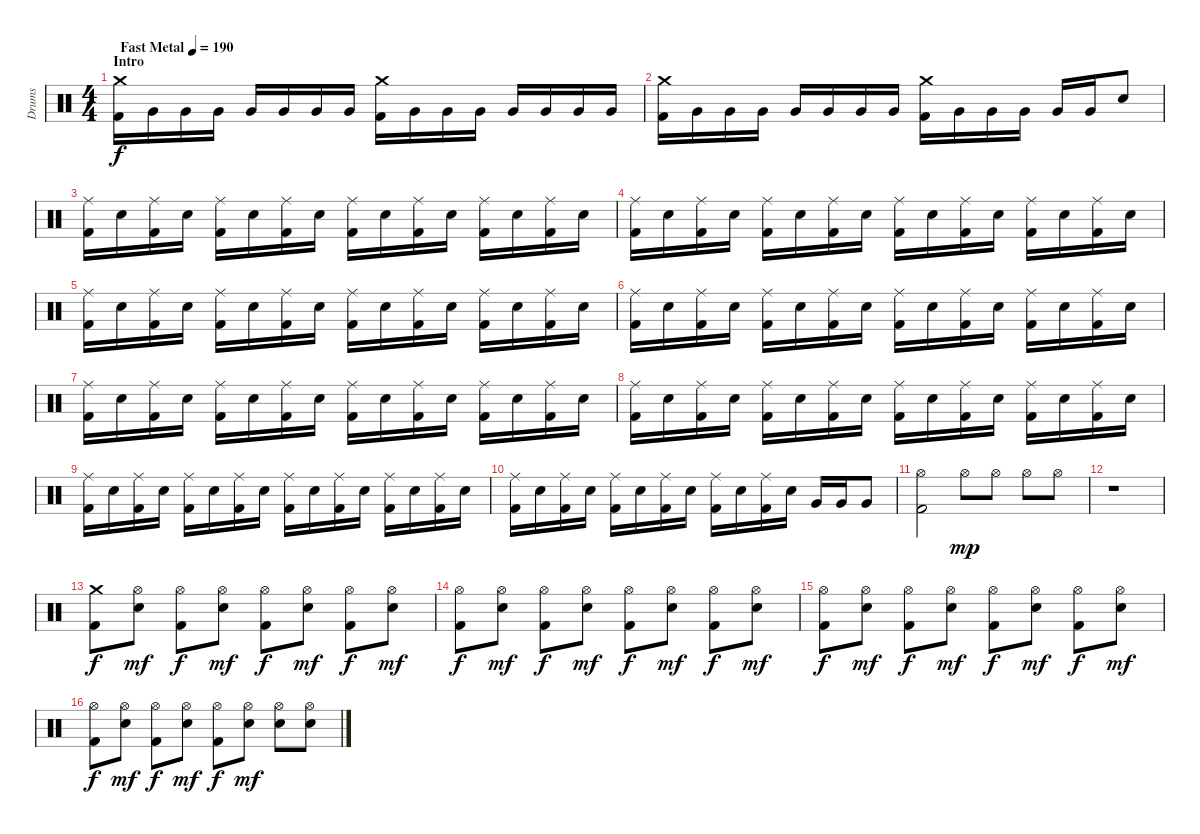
\track ("Drums" "Drums") {instrument percussion}
\staff {score}
\articulation defaults
\ts (4 4)
\section ("" "Intro")
\tempo (190 "Fast Metal")
\clef neutral
\ks c
("Crash medium (hit)" "Kick (hit) 2").16{dy f} "Very Low Tom (hit)".16 "Very Low Tom (hit)".16 "Very Low Tom (hit)".16 "Very Low Tom (hit)".16 "Very Low Tom (hit)".16 "Very Low Tom (hit)".16 "Very Low Tom (hit)".16 ("Crash medium (hit)" "Kick (hit) 2").16 "Very Low Tom (hit)".16 "Very Low Tom (hit)".16 "Very Low Tom (hit)".16 "Very Low Tom (hit)".16 "Very Low Tom (hit)".16 "Very Low Tom (hit)".16 "Very Low Tom (hit)".16 |
("Crash medium (hit)" "Kick (hit) 2").16 "Very Low Tom (hit)".16 "Very Low Tom (hit)".16 "Very Low Tom (hit)".16 "Very Low Tom (hit)".16 "Very Low Tom (hit)".16 "Very Low Tom (hit)".16 "Very Low Tom (hit)".16 ("Crash medium (hit)" "Kick (hit) 2").16 "Very Low Tom (hit)".16 "Very Low Tom (hit)".16 "Very Low Tom (hit)".16 "Very Low Tom (hit)".16 "Very Low Tom (hit)".16 "Snare (hit) 2".8 |
("Ride (middle)" "Kick (hit) 2").16 "Snare (hit) 2".16 ("Ride (middle)" "Kick (hit) 2").16 "Snare (hit) 2".16 ("Ride (middle)" "Kick (hit) 2").16 "Snare (hit) 2".16 ("Ride (middle)" "Kick (hit) 2").16 "Snare (hit) 2".16 ("Ride (middle)" "Kick (hit) 2").16 "Snare (hit) 2".16 ("Ride (middle)" "Kick (hit) 2").16 "Snare (hit) 2".16 ("Ride (middle)" "Kick (hit) 2").16 "Snare (hit) 2".16 ("Ride (middle)" "Kick (hit) 2").16 "Snare (hit) 2".16 |
("Ride (middle)" "Kick (hit) 2").16 "Snare (hit) 2".16 ("Ride (middle)" "Kick (hit) 2").16 "Snare (hit) 2".16 ("Ride (middle)" "Kick (hit) 2").16 "Snare (hit) 2".16 ("Ride (middle)" "Kick (hit) 2").16 "Snare (hit) 2".16 ("Ride (middle)" "Kick (hit) 2").16 "Snare (hit) 2".16 ("Ride (middle)" "Kick (hit) 2").16 "Snare (hit) 2".16 ("Ride (middle)" "Kick (hit) 2").16 "Snare (hit) 2".16 ("Ride (middle)" "Kick (hit) 2").16 "Snare (hit) 2".16 |
("Ride (middle)" "Kick (hit) 2").16 "Snare (hit) 2".16 ("Ride (middle)" "Kick (hit) 2").16 "Snare (hit) 2".16 ("Ride (middle)" "Kick (hit) 2").16 "Snare (hit) 2".16 ("Ride (middle)" "Kick (hit) 2").16 "Snare (hit) 2".16 ("Ride (middle)" "Kick (hit) 2").16 "Snare (hit) 2".16 ("Ride (middle)" "Kick (hit) 2").16 "Snare (hit) 2".16 ("Ride (middle)" "Kick (hit) 2").16 "Snare (hit) 2".16 ("Ride (middle)" "Kick (hit) 2").16 "Snare (hit) 2".16 |
("Ride (middle)" "Kick (hit) 2").16 "Snare (hit) 2".16 ("Ride (middle)" "Kick (hit) 2").16 "Snare (hit) 2".16 ("Ride (middle)" "Kick (hit) 2").16 "Snare (hit) 2".16 ("Ride (middle)" "Kick (hit) 2").16 "Snare (hit) 2".16 ("Ride (middle)" "Kick (hit) 2").16 "Snare (hit) 2".16 ("Ride (middle)" "Kick (hit) 2").16 "Snare (hit) 2".16 ("Ride (middle)" "Kick (hit) 2").16 "Snare (hit) 2".16 ("Ride (middle)" "Kick (hit) 2").16 "Snare (hit) 2".16 |
("Ride (middle)" "Kick (hit) 2").16 "Snare (hit) 2".16 ("Ride (middle)" "Kick (hit) 2").16 "Snare (hit) 2".16 ("Ride (middle)" "Kick (hit) 2").16 "Snare (hit) 2".16 ("Ride (middle)" "Kick (hit) 2").16 "Snare (hit) 2".16 ("Ride (middle)" "Kick (hit) 2").16 "Snare (hit) 2".16 ("Ride (middle)" "Kick (hit) 2").16 "Snare (hit) 2".16 ("Ride (middle)" "Kick (hit) 2").16 "Snare (hit) 2".16 ("Ride (middle)" "Kick (hit) 2").16 "Snare (hit) 2".16 |
("Ride (middle)" "Kick (hit) 2").16 "Snare (hit) 2".16 ("Ride (middle)" "Kick (hit) 2").16 "Snare (hit) 2".16 ("Ride (middle)" "Kick (hit) 2").16 "Snare (hit) 2".16 ("Ride (middle)" "Kick (hit) 2").16 "Snare (hit) 2".16 ("Ride (middle)" "Kick (hit) 2").16 "Snare (hit) 2".16 ("Ride (middle)" "Kick (hit) 2").16 "Snare (hit) 2".16 ("Ride (middle)" "Kick (hit) 2").16 "Snare (hit) 2".16 ("Ride (middle)" "Kick (hit) 2").16 "Snare (hit) 2".16 |
("Ride (middle)" "Kick (hit) 2").16 "Snare (hit) 2".16 ("Ride (middle)" "Kick (hit) 2").16 "Snare (hit) 2".16 ("Ride (middle)" "Kick (hit) 2").16 "Snare (hit) 2".16 ("Ride (middle)" "Kick (hit) 2").16 "Snare (hit) 2".16 ("Ride (middle)" "Kick (hit) 2").16 "Snare (hit) 2".16 ("Ride (middle)" "Kick (hit) 2").16 "Snare (hit) 2".16 ("Ride (middle)" "Kick (hit) 2").16 "Snare (hit) 2".16 ("Ride (middle)" "Kick (hit) 2").16 "Snare (hit) 2".16 |
("Ride (middle)" "Kick (hit) 2").16 "Snare (hit) 2".16 ("Ride (middle)" "Kick (hit) 2").16 "Snare (hit) 2".16 ("Ride (middle)" "Kick (hit) 2").16 "Snare (hit) 2".16 ("Ride (middle)" "Kick (hit) 2").16 "Snare (hit) 2".16 ("Ride (middle)" "Kick (hit) 2").16 "Snare (hit) 2".16 ("Ride (middle)" "Kick (hit) 2").16 "Snare (hit) 2".16 "Very Low Tom (hit)".16 "Very Low Tom (hit)".16 "Very Low Tom (hit)".8 |
("Hi-Hat (open)" "Kick (hit) 2").2 "Hi-Hat (open)".8{dy mp} "Hi-Hat (open)".8 "Hi-Hat (open)".8 "Hi-Hat (open)".8 |
r.1 |
("Crash medium (hit)" "Kick (hit) 2").8{dy f} ("Hi-Hat (open)" "Snare (hit) 2").8{dy mf} ("Hi-Hat (open)" "Kick (hit) 2").8{dy f} ("Hi-Hat (open)" "Snare (hit) 2").8{dy mf} ("Hi-Hat (open)" "Kick (hit) 2").8{dy f} ("Hi-Hat (open)" "Snare (hit) 2").8{dy mf} ("Hi-Hat (open)" "Kick (hit) 2").8{dy f} ("Hi-Hat (open)" "Snare (hit) 2").8{dy mf} |
("Hi-Hat (open)" "Kick (hit) 2").8{dy f} ("Hi-Hat (open)" "Snare (hit) 2").8{dy mf} ("Hi-Hat (open)" "Kick (hit) 2").8{dy f} ("Hi-Hat (open)" "Snare (hit) 2").8{dy mf} ("Hi-Hat (open)" "Kick (hit) 2").8{dy f} ("Hi-Hat (open)" "Snare (hit) 2").8{dy mf} ("Hi-Hat (open)" "Kick (hit) 2").8{dy f} ("Hi-Hat (open)" "Snare (hit) 2").8{dy mf} |
("Hi-Hat (open)" "Kick (hit) 2").8{dy f} ("Hi-Hat (open)" "Snare (hit) 2").8{dy mf} ("Hi-Hat (open)" "Kick (hit) 2").8{dy f} ("Hi-Hat (open)" "Snare (hit) 2").8{dy mf} ("Hi-Hat (open)" "Kick (hit) 2").8{dy f} ("Hi-Hat (open)" "Snare (hit) 2").8{dy mf} ("Hi-Hat (open)" "Kick (hit) 2").8{dy f} ("Hi-Hat (open)" "Snare (hit) 2").8{dy mf} |
("Hi-Hat (open)" "Kick (hit) 2").8{dy f} ("Hi-Hat (open)" "Snare (hit) 2").8{dy mf} ("Hi-Hat (open)" "Kick (hit) 2").8{dy f} ("Hi-Hat (open)" "Snare (hit) 2").8{dy mf} ("Hi-Hat (open)" "Kick (hit) 2").8{dy f} ("Hi-Hat (open)" "Snare (hit) 2").8{dy mf} ("Hi-Hat (open)" "Snare (hit) 2").8 ("Hi-Hat (open)" "Snare (hit) 2").8
